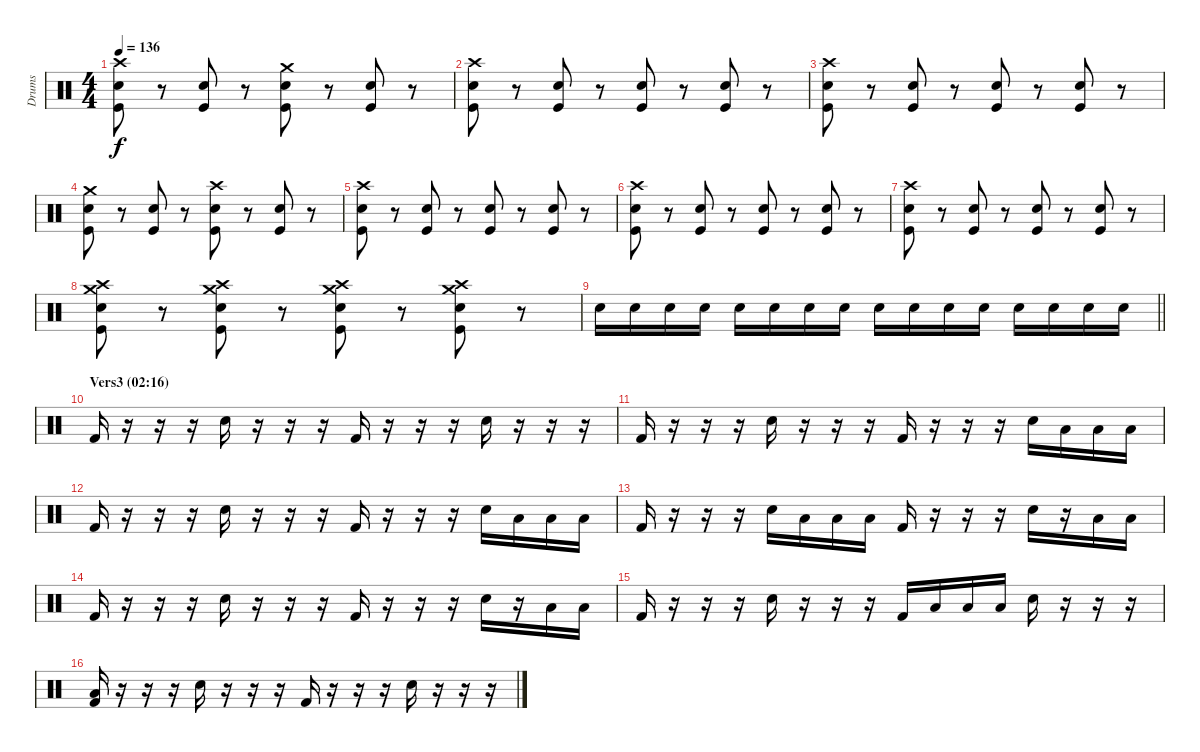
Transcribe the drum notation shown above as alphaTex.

\track ("Drums" "Drums") {instrument percussion}
\staff {score}
\articulation defaults
\ts (4 4)
\tempo 136
\clef neutral
\ks c
("Crash high (hit)" "Electric Snare (hit)" "Kick (hit)").8{dy f} r.8 ("Electric Snare (hit)" "Kick (hit)").8 r.8 ("Crash medium (hit)" "Electric Snare (hit)" "Kick (hit)").8 r.8 ("Electric Snare (hit)" "Kick (hit)").8 r.8 |
("Crash high (hit)" "Electric Snare (hit)" "Kick (hit)").8 r.8 ("Electric Snare (hit)" "Kick (hit)").8 r.8 ("Electric Snare (hit)" "Kick (hit)").8 r.8 ("Electric Snare (hit)" "Kick (hit)").8 r.8 |
("Crash high (hit)" "Electric Snare (hit)" "Kick (hit)").8 r.8 ("Electric Snare (hit)" "Kick (hit)").8 r.8 ("Electric Snare (hit)" "Kick (hit)").8 r.8 ("Electric Snare (hit)" "Kick (hit)").8 r.8 |
("Crash medium (hit)" "Electric Snare (hit)" "Kick (hit)").8 r.8 ("Electric Snare (hit)" "Kick (hit)").8 r.8 ("Crash high (hit)" "Electric Snare (hit)" "Kick (hit)").8 r.8 ("Electric Snare (hit)" "Kick (hit)").8 r.8 |
("Crash high (hit)" "Electric Snare (hit)" "Kick (hit)").8 r.8 ("Electric Snare (hit)" "Kick (hit)").8 r.8 ("Electric Snare (hit)" "Kick (hit)").8 r.8 ("Electric Snare (hit)" "Kick (hit)").8 r.8 |
("Crash high (hit)" "Electric Snare (hit)" "Kick (hit)").8 r.8 ("Electric Snare (hit)" "Kick (hit)").8 r.8 ("Electric Snare (hit)" "Kick (hit)").8 r.8 ("Electric Snare (hit)" "Kick (hit)").8 r.8 |
("Crash high (hit)" "Electric Snare (hit)" "Kick (hit)").8 r.8 ("Electric Snare (hit)" "Kick (hit)").8 r.8 ("Electric Snare (hit)" "Kick (hit)").8 r.8 ("Electric Snare (hit)" "Kick (hit)").8 r.8 |
("Crash medium (hit)" "Crash high (hit)" "Electric Snare (hit)" "Kick (hit)").8 r.8 ("Crash medium (hit)" "Crash high (hit)" "Electric Snare (hit)" "Kick (hit)").8 r.8 ("Crash medium (hit)" "Crash high (hit)" "Electric Snare (hit)" "Kick (hit)").8 r.8 ("Crash medium (hit)" "Crash high (hit)" "Electric Snare (hit)" "Kick (hit)").8 r.8 |
\barLineRight lightlight "Snare (hit) 2".16 "Electric Snare (hit)".16 "Electric Snare (hit)".16 "Electric Snare (hit)".16 "Electric Snare (hit)".16 "Electric Snare (hit)".16 "Electric Snare (hit)".16 "Electric Snare (hit)".16 "Snare (hit) 2".16 "Electric Snare (hit)".16 "Electric Snare (hit)".16 "Electric Snare (hit)".16 "Electric Snare (hit)".16 "Electric Snare (hit)".16 "Electric Snare (hit)".16 "Electric Snare (hit)".16
|
\section ("" "Vers3 (02:16)")
"Kick (hit) 2".16 r.16 r.16 r.16 "Electric Snare (hit)".16 r.16 r.16 r.16 "Kick (hit) 2".16 r.16 r.16 r.16 "Electric Snare (hit)".16 r.16 r.16 r.16 |
"Kick (hit) 2".16 r.16 r.16 r.16 "Electric Snare (hit)".16 r.16 r.16 r.16 "Kick (hit) 2".16 r.16 r.16 r.16 "Electric Snare (hit)".16 "Low Floor Tom (hit)".16 "Low Floor Tom (hit)".16 "Low Floor Tom (hit)".16 |
"Kick (hit) 2".16 r.16 r.16 r.16 "Electric Snare (hit)".16 r.16 r.16 r.16 "Kick (hit) 2".16 r.16 r.16 r.16 "Electric Snare (hit)".16 "Low Floor Tom (hit)".16 "Low Floor Tom (hit)".16 "Low Floor Tom (hit)".16 |
"Kick (hit) 2".16 r.16 r.16 r.16 "Electric Snare (hit)".16 "Low Floor Tom (hit)".16 "Low Floor Tom (hit)".16 "Low Floor Tom (hit)".16 "Kick (hit) 2".16 r.16 r.16 r.16 "Electric Snare (hit)".16 r.16 "Low Floor Tom (hit)".16 "Low Floor Tom (hit)".16 |
"Kick (hit) 2".16 r.16 r.16 r.16 "Electric Snare (hit)".16 r.16 r.16 r.16 "Kick (hit) 2".16 r.16 r.16 r.16 "Electric Snare (hit)".16 r.16 "Low Floor Tom (hit)".16 "Low Floor Tom (hit)".16 |
"Kick (hit) 2".16 r.16 r.16 r.16 "Electric Snare (hit)".16 r.16 r.16 r.16 "Kick (hit) 2".16 "Low Floor Tom (hit)".16 "Low Floor Tom (hit)".16 "Low Floor Tom (hit)".16 "Electric Snare (hit)".16 r.16 r.16 r.16 |
("Low Floor Tom (hit)" "Kick (hit) 2").16 r.16 r.16 r.16 "Electric Snare (hit)".16 r.16 r.16 r.16 "Kick (hit) 2".16 r.16 r.16 r.16 "Electric Snare (hit)".16 r.16 r.16 r.16
